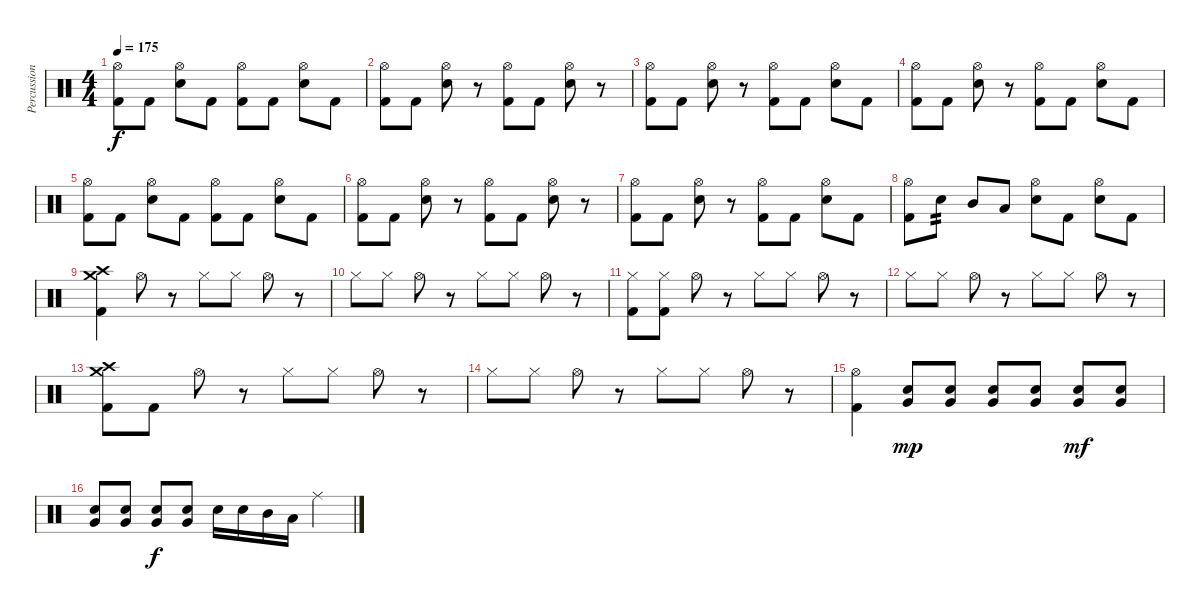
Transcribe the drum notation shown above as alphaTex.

\track ("Percussion" "Percussion") {instrument percussion bank 177}
\staff {score}
\articulation defaults
\ts (4 4)
\tempo 175
\clef neutral
\ks c
("Hi-Hat (open)" "Kick (hit) 2").8{dy f} "Kick (hit) 2".8 ("Hi-Hat (open)" "Electric Snare (hit)").8 "Kick (hit) 2".8 ("Hi-Hat (open)" "Kick (hit) 2").8 "Kick (hit) 2".8 ("Hi-Hat (open)" "Electric Snare (hit)").8 "Kick (hit) 2".8 |
("Hi-Hat (open)" "Kick (hit) 2").8 "Kick (hit) 2".8 ("Hi-Hat (open)" "Electric Snare (hit)").8 r.8 ("Hi-Hat (open)" "Kick (hit) 2").8 "Kick (hit) 2".8 ("Hi-Hat (open)" "Electric Snare (hit)").8 r.8 |
("Hi-Hat (open)" "Kick (hit) 2").8 "Kick (hit) 2".8 ("Hi-Hat (open)" "Electric Snare (hit)").8 r.8 ("Hi-Hat (open)" "Kick (hit) 2").8 "Kick (hit) 2".8 ("Hi-Hat (open)" "Electric Snare (hit)").8 "Kick (hit) 2".8 |
("Hi-Hat (open)" "Kick (hit) 2").8 "Kick (hit) 2".8 ("Hi-Hat (open)" "Electric Snare (hit)").8 r.8 ("Hi-Hat (open)" "Kick (hit) 2").8 "Kick (hit) 2".8 ("Hi-Hat (open)" "Electric Snare (hit)").8 "Kick (hit) 2".8 |
("Hi-Hat (open)" "Kick (hit) 2").8 "Kick (hit) 2".8 ("Hi-Hat (open)" "Electric Snare (hit)").8 "Kick (hit) 2".8 ("Hi-Hat (open)" "Kick (hit) 2").8 "Kick (hit) 2".8 ("Hi-Hat (open)" "Electric Snare (hit)").8 "Kick (hit) 2".8 |
("Hi-Hat (open)" "Kick (hit) 2").8 "Kick (hit) 2".8 ("Hi-Hat (open)" "Electric Snare (hit)").8 r.8 ("Hi-Hat (open)" "Kick (hit) 2").8 "Kick (hit) 2".8 ("Hi-Hat (open)" "Electric Snare (hit)").8 r.8 |
("Hi-Hat (open)" "Kick (hit) 2").8 "Kick (hit) 2".8 ("Hi-Hat (open)" "Electric Snare (hit)").8 r.8 ("Hi-Hat (open)" "Kick (hit) 2").8 "Kick (hit) 2".8 ("Hi-Hat (open)" "Electric Snare (hit)").8 "Kick (hit) 2".8 |
("Hi-Hat (open)" "Kick (hit) 2").8 "Electric Snare (hit)".8{tp 2} "Mid Tom (hit)".8 "Low Tom (hit)".8 ("Hi-Hat (open)" "Electric Snare (hit)").8 "Kick (hit) 2".8 ("Hi-Hat (open)" "Electric Snare (hit)").8 "Kick (hit) 2".8 |
("Crash high (hit)" "Crash medium (hit)" "Kick (hit) 2").4 "Hi-Hat (open)".8 r.8 "Hi-Hat (closed)".8 "Hi-Hat (closed)".8 "Hi-Hat (open)".8 r.8 |
"Hi-Hat (closed)".8 "Hi-Hat (closed)".8 "Hi-Hat (open)".8 r.8 "Hi-Hat (closed)".8 "Hi-Hat (closed)".8 "Hi-Hat (open)".8 r.8 |
("Hi-Hat (closed)" "Kick (hit) 2").8 ("Hi-Hat (closed)" "Kick (hit) 2").8 "Hi-Hat (open)".8 r.8 "Hi-Hat (closed)".8 "Hi-Hat (closed)".8 "Hi-Hat (open)".8 r.8 |
"Hi-Hat (closed)".8 "Hi-Hat (closed)".8 "Hi-Hat (open)".8 r.8 "Hi-Hat (closed)".8 "Hi-Hat (closed)".8 "Hi-Hat (open)".8 r.8 |
("Crash high (hit)" "Crash medium (hit)" "Kick (hit) 2").8 "Kick (hit) 2".8 "Hi-Hat (open)".8 r.8 "Hi-Hat (closed)".8 "Hi-Hat (closed)".8 "Hi-Hat (open)".8 r.8 |
"Hi-Hat (closed)".8 "Hi-Hat (closed)".8 "Hi-Hat (open)".8 r.8 "Hi-Hat (closed)".8 "Hi-Hat (closed)".8 "Hi-Hat (open)".8 r.8 |
("Hi-Hat (open)" "Kick (hit) 2").4 ("Electric Snare (hit)" "Very Low Tom (hit)").8{dy mp} ("Electric Snare (hit)" "Very Low Tom (hit)").8 ("Electric Snare (hit)" "Very Low Tom (hit)").8 ("Electric Snare (hit)" "Very Low Tom (hit)").8 ("Electric Snare (hit)" "Very Low Tom (hit)").8{dy mf} ("Electric Snare (hit)" "Very Low Tom (hit)").8 |
("Electric Snare (hit)" "Very Low Tom (hit)").8 ("Electric Snare (hit)" "Very Low Tom (hit)").8 ("Electric Snare (hit)" "Very Low Tom (hit)").8{dy f} ("Electric Snare (hit)" "Very Low Tom (hit)").8 "Electric Snare (hit)".16 "Electric Snare (hit)".16 "Mid Tom (hit)".16 "Low Tom (hit)".16 "Ride (middle)".4
